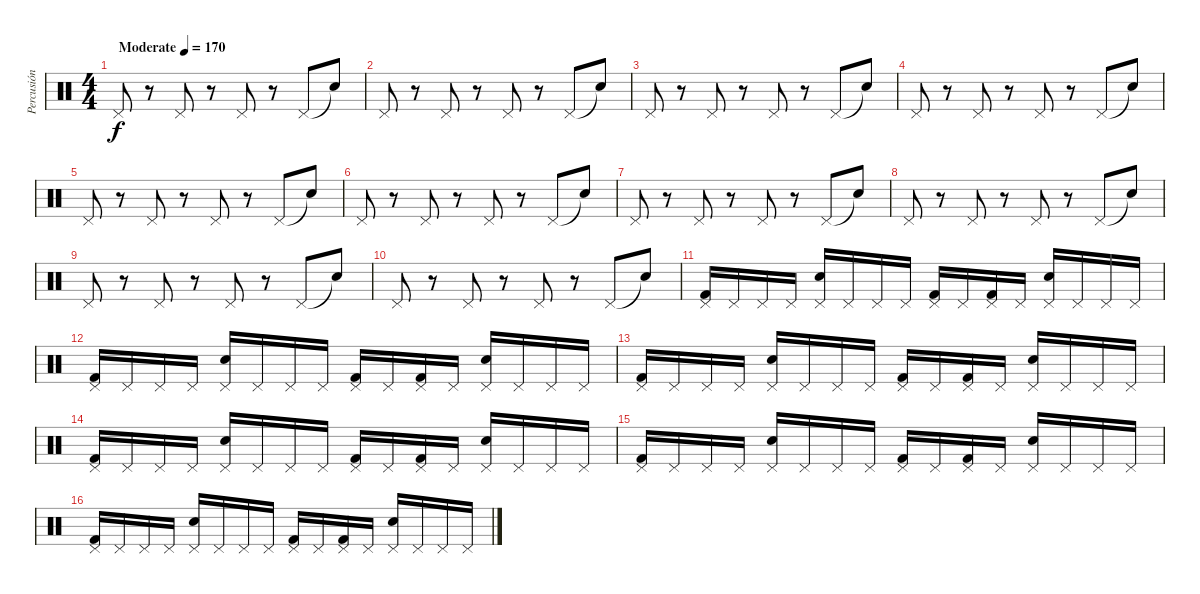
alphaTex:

\track ("Percusión" "Percusión") {instrument percussion}
\staff {score}
\articulation defaults
\ts (4 4)
\tempo (170 "Moderate")
\clef neutral
\ks c "Pedal Hi-Hat (hit)".8{dy f}
r.8 "Pedal Hi-Hat (hit)".8 r.8 "Pedal Hi-Hat (hit)".8 r.8 "Pedal Hi-Hat (hit)".8 "Snare (hit)"{t}.8 |
"Pedal Hi-Hat (hit)".8 r.8 "Pedal Hi-Hat (hit)".8 r.8 "Pedal Hi-Hat (hit)".8 r.8 "Pedal Hi-Hat (hit)".8 "Snare (hit)"{t}.8 |
"Pedal Hi-Hat (hit)".8 r.8 "Pedal Hi-Hat (hit)".8 r.8 "Pedal Hi-Hat (hit)".8 r.8 "Pedal Hi-Hat (hit)".8 "Snare (hit)"{t}.8 |
"Pedal Hi-Hat (hit)".8 r.8 "Pedal Hi-Hat (hit)".8 r.8 "Pedal Hi-Hat (hit)".8 r.8 "Pedal Hi-Hat (hit)".8 "Snare (hit)"{t}.8 |
"Pedal Hi-Hat (hit)".8 r.8 "Pedal Hi-Hat (hit)".8 r.8 "Pedal Hi-Hat (hit)".8 r.8 "Pedal Hi-Hat (hit)".8 "Snare (hit)"{t}.8 |
"Pedal Hi-Hat (hit)".8 r.8 "Pedal Hi-Hat (hit)".8 r.8 "Pedal Hi-Hat (hit)".8 r.8 "Pedal Hi-Hat (hit)".8 "Snare (hit)"{t}.8 |
"Pedal Hi-Hat (hit)".8 r.8 "Pedal Hi-Hat (hit)".8 r.8 "Pedal Hi-Hat (hit)".8 r.8 "Pedal Hi-Hat (hit)".8 "Snare (hit)"{t}.8 |
"Pedal Hi-Hat (hit)".8 r.8 "Pedal Hi-Hat (hit)".8 r.8 "Pedal Hi-Hat (hit)".8 r.8 "Pedal Hi-Hat (hit)".8 "Snare (hit)"{t}.8 |
"Pedal Hi-Hat (hit)".8 r.8 "Pedal Hi-Hat (hit)".8 r.8 "Pedal Hi-Hat (hit)".8 r.8 "Pedal Hi-Hat (hit)".8 "Snare (hit)"{t}.8 |
"Pedal Hi-Hat (hit)".8 r.8 "Pedal Hi-Hat (hit)".8 r.8 "Pedal Hi-Hat (hit)".8 r.8 "Pedal Hi-Hat (hit)".8 "Snare (hit)"{t}.8 |
("Pedal Hi-Hat (hit)" "Kick (hit) 2").16 "Pedal Hi-Hat (hit)".16 "Pedal Hi-Hat (hit)".16 "Pedal Hi-Hat (hit)".16 ("Pedal Hi-Hat (hit)" "Electric Snare (hit)").16 "Pedal Hi-Hat (hit)".16 "Pedal Hi-Hat (hit)".16 "Pedal Hi-Hat (hit)".16 ("Pedal Hi-Hat (hit)" "Kick (hit) 2").16 "Pedal Hi-Hat (hit)".16 ("Pedal Hi-Hat (hit)" "Kick (hit) 2").16 "Pedal Hi-Hat (hit)".16 ("Pedal Hi-Hat (hit)" "Electric Snare (hit)").16 "Pedal Hi-Hat (hit)".16 "Pedal Hi-Hat (hit)".16 "Pedal Hi-Hat (hit)".16 |
("Pedal Hi-Hat (hit)" "Kick (hit) 2").16 "Pedal Hi-Hat (hit)".16 "Pedal Hi-Hat (hit)".16 "Pedal Hi-Hat (hit)".16 ("Pedal Hi-Hat (hit)" "Electric Snare (hit)").16 "Pedal Hi-Hat (hit)".16 "Pedal Hi-Hat (hit)".16 "Pedal Hi-Hat (hit)".16 ("Pedal Hi-Hat (hit)" "Kick (hit) 2").16 "Pedal Hi-Hat (hit)".16 ("Pedal Hi-Hat (hit)" "Kick (hit) 2").16 "Pedal Hi-Hat (hit)".16 ("Pedal Hi-Hat (hit)" "Electric Snare (hit)").16 "Pedal Hi-Hat (hit)".16 "Pedal Hi-Hat (hit)".16 "Pedal Hi-Hat (hit)".16 |
("Pedal Hi-Hat (hit)" "Kick (hit) 2").16 "Pedal Hi-Hat (hit)".16 "Pedal Hi-Hat (hit)".16 "Pedal Hi-Hat (hit)".16 ("Pedal Hi-Hat (hit)" "Electric Snare (hit)").16 "Pedal Hi-Hat (hit)".16 "Pedal Hi-Hat (hit)".16 "Pedal Hi-Hat (hit)".16 ("Pedal Hi-Hat (hit)" "Kick (hit) 2").16 "Pedal Hi-Hat (hit)".16 ("Pedal Hi-Hat (hit)" "Kick (hit) 2").16 "Pedal Hi-Hat (hit)".16 ("Pedal Hi-Hat (hit)" "Electric Snare (hit)").16 "Pedal Hi-Hat (hit)".16 "Pedal Hi-Hat (hit)".16 "Pedal Hi-Hat (hit)".16 |
("Pedal Hi-Hat (hit)" "Kick (hit) 2").16 "Pedal Hi-Hat (hit)".16 "Pedal Hi-Hat (hit)".16 "Pedal Hi-Hat (hit)".16 ("Pedal Hi-Hat (hit)" "Electric Snare (hit)").16 "Pedal Hi-Hat (hit)".16 "Pedal Hi-Hat (hit)".16 "Pedal Hi-Hat (hit)".16 ("Pedal Hi-Hat (hit)" "Kick (hit) 2").16 "Pedal Hi-Hat (hit)".16 ("Pedal Hi-Hat (hit)" "Kick (hit) 2").16 "Pedal Hi-Hat (hit)".16 ("Pedal Hi-Hat (hit)" "Electric Snare (hit)").16 "Pedal Hi-Hat (hit)".16 "Pedal Hi-Hat (hit)".16 "Pedal Hi-Hat (hit)".16 |
("Pedal Hi-Hat (hit)" "Kick (hit) 2").16 "Pedal Hi-Hat (hit)".16 "Pedal Hi-Hat (hit)".16 "Pedal Hi-Hat (hit)".16 ("Pedal Hi-Hat (hit)" "Electric Snare (hit)").16 "Pedal Hi-Hat (hit)".16 "Pedal Hi-Hat (hit)".16 "Pedal Hi-Hat (hit)".16 ("Pedal Hi-Hat (hit)" "Kick (hit) 2").16 "Pedal Hi-Hat (hit)".16 ("Pedal Hi-Hat (hit)" "Kick (hit) 2").16 "Pedal Hi-Hat (hit)".16 ("Pedal Hi-Hat (hit)" "Electric Snare (hit)").16 "Pedal Hi-Hat (hit)".16 "Pedal Hi-Hat (hit)".16 "Pedal Hi-Hat (hit)".16 |
("Pedal Hi-Hat (hit)" "Kick (hit) 2").16 "Pedal Hi-Hat (hit)".16 "Pedal Hi-Hat (hit)".16 "Pedal Hi-Hat (hit)".16 ("Pedal Hi-Hat (hit)" "Electric Snare (hit)").16 "Pedal Hi-Hat (hit)".16 "Pedal Hi-Hat (hit)".16 "Pedal Hi-Hat (hit)".16 ("Pedal Hi-Hat (hit)" "Kick (hit) 2").16 "Pedal Hi-Hat (hit)".16 ("Pedal Hi-Hat (hit)" "Kick (hit) 2").16 "Pedal Hi-Hat (hit)".16 ("Pedal Hi-Hat (hit)" "Electric Snare (hit)").16 "Pedal Hi-Hat (hit)".16 "Pedal Hi-Hat (hit)".16 "Pedal Hi-Hat (hit)".16
